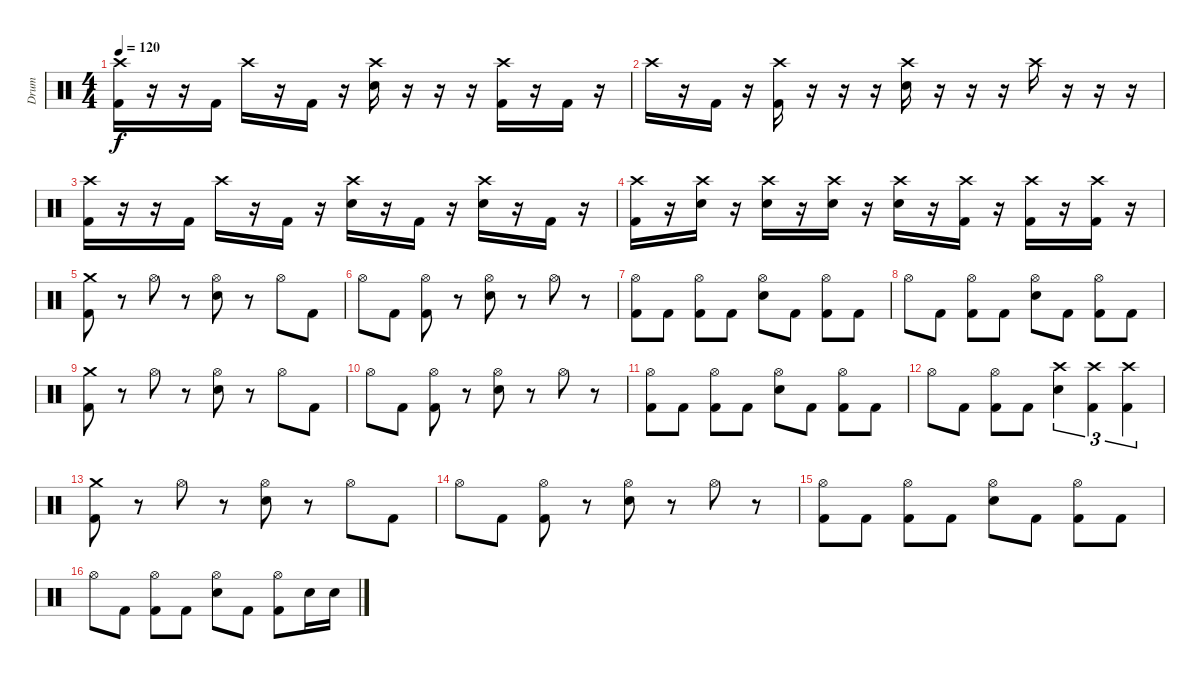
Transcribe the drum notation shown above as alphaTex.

\track ("Drum" "Drum") {instrument percussion}
\staff {score}
\articulation defaults
\ts (4 4)
\tempo 120
\clef neutral
\ks c
("Crash high (hit)" "Kick (hit) 2").16{dy f} r.16 r.16 "Kick (hit) 2".16 "Crash high (hit)".16 r.16 "Kick (hit) 2".16 r.16 ("Crash high (hit)" "Electric Snare (hit)").16 r.16 r.16 r.16 ("Crash high (hit)" "Kick (hit) 2").16 r.16 "Kick (hit) 2".16 r.16 |
"Crash high (hit)".16 r.16 "Kick (hit) 2".16 r.16 ("Crash high (hit)" "Kick (hit) 2").16 r.16 r.16 r.16 ("Crash high (hit)" "Electric Snare (hit)").16 r.16 r.16 r.16 "Crash high (hit)".16 r.16 r.16 r.16 |
("Crash high (hit)" "Kick (hit) 2").16 r.16 r.16 "Kick (hit) 2".16 "Crash high (hit)".16 r.16 "Kick (hit) 2".16 r.16 ("Crash high (hit)" "Electric Snare (hit)").16 r.16 "Kick (hit) 2".16 r.16 ("Crash high (hit)" "Electric Snare (hit)").16 r.16 "Kick (hit) 2".16 r.16 |
("Crash high (hit)" "Kick (hit) 2").16 r.16 ("Crash high (hit)" "Electric Snare (hit)").16 r.16 ("Crash high (hit)" "Electric Snare (hit)").16 r.16 ("Crash high (hit)" "Electric Snare (hit)").16 r.16 ("Crash high (hit)" "Electric Snare (hit)").16 r.16 ("Crash high (hit)" "Kick (hit) 2").16 r.16 ("Crash high (hit)" "Kick (hit) 2").16 r.16 ("Crash high (hit)" "Kick (hit) 2").16 r.16 |
("Crash medium (hit)" "Kick (hit) 2").8 r.8 "Hi-Hat (open)".8 r.8 ("Hi-Hat (open)" "Electric Snare (hit)").8 r.8 "Hi-Hat (open)".8 "Kick (hit) 2".8 |
"Hi-Hat (open)".8 "Kick (hit) 2".8 ("Hi-Hat (open)" "Kick (hit) 2").8 r.8 ("Hi-Hat (open)" "Electric Snare (hit)").8 r.8 "Hi-Hat (open)".8 r.8 |
("Hi-Hat (open)" "Kick (hit) 2").8 "Kick (hit) 2".8 ("Hi-Hat (open)" "Kick (hit) 2").8 "Kick (hit) 2".8 ("Hi-Hat (open)" "Electric Snare (hit)").8 "Kick (hit) 2".8 ("Hi-Hat (open)" "Kick (hit) 2").8 "Kick (hit) 2".8 |
"Hi-Hat (open)".8 "Kick (hit) 2".8 ("Hi-Hat (open)" "Kick (hit) 2").8 "Kick (hit) 2".8 ("Hi-Hat (open)" "Electric Snare (hit)").8 "Kick (hit) 2".8 ("Hi-Hat (open)" "Kick (hit) 2").8 "Kick (hit) 2".8 |
("Crash medium (hit)" "Kick (hit) 2").8 r.8 "Hi-Hat (open)".8 r.8 ("Hi-Hat (open)" "Electric Snare (hit)").8 r.8 "Hi-Hat (open)".8 "Kick (hit) 2".8 |
"Hi-Hat (open)".8 "Kick (hit) 2".8 ("Hi-Hat (open)" "Kick (hit) 2").8 r.8 ("Hi-Hat (open)" "Electric Snare (hit)").8 r.8 "Hi-Hat (open)".8 r.8 |
("Hi-Hat (open)" "Kick (hit) 2").8 "Kick (hit) 2".8 ("Hi-Hat (open)" "Kick (hit) 2").8 "Kick (hit) 2".8 ("Hi-Hat (open)" "Electric Snare (hit)").8 "Kick (hit) 2".8 ("Hi-Hat (open)" "Kick (hit) 2").8 "Kick (hit) 2".8 |
"Hi-Hat (open)".8 "Kick (hit) 2".8 ("Hi-Hat (open)" "Kick (hit) 2").8 "Kick (hit) 2".8 ("Crash high (hit)" "Electric Snare (hit)").4{tu (3 2)} ("Crash high (hit)" "Kick (hit) 2").4{tu (3 2)} ("Crash high (hit)" "Kick (hit) 2").4{tu (3 2)} |
("Crash medium (hit)" "Kick (hit) 2").8 r.8 "Hi-Hat (open)".8 r.8 ("Hi-Hat (open)" "Electric Snare (hit)").8 r.8 "Hi-Hat (open)".8 "Kick (hit) 2".8 |
"Hi-Hat (open)".8 "Kick (hit) 2".8 ("Hi-Hat (open)" "Kick (hit) 2").8 r.8 ("Hi-Hat (open)" "Electric Snare (hit)").8 r.8 "Hi-Hat (open)".8 r.8 |
("Hi-Hat (open)" "Kick (hit) 2").8 "Kick (hit) 2".8 ("Hi-Hat (open)" "Kick (hit) 2").8 "Kick (hit) 2".8 ("Hi-Hat (open)" "Electric Snare (hit)").8 "Kick (hit) 2".8 ("Hi-Hat (open)" "Kick (hit) 2").8 "Kick (hit) 2".8 |
"Hi-Hat (open)".8 "Kick (hit) 2".8 ("Hi-Hat (open)" "Kick (hit) 2").8 "Kick (hit) 2".8 ("Hi-Hat (open)" "Electric Snare (hit)").8 "Kick (hit) 2".8 ("Hi-Hat (open)" "Kick (hit) 2").8 "Electric Snare (hit)".16 "Electric Snare (hit)".16
